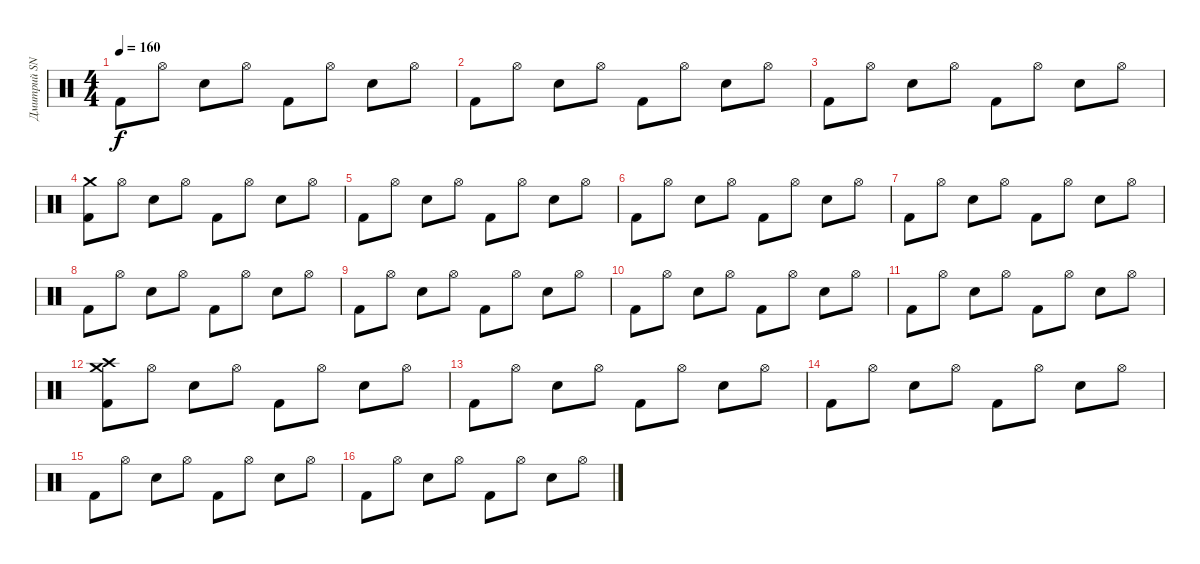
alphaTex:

\track ("Дмитрий SNAKE Хакимов" "Дмитрий SN") {instrument percussion}
\staff {score}
\articulation defaults
\ts (4 4)
\tempo 160
\clef neutral
\ks c "Kick (hit) 2".8{dy f} "Hi-Hat (open)".8 "Electric Snare (hit)".8 "Hi-Hat (open)".8 "Kick (hit) 2".8 "Hi-Hat (open)".8 "Electric Snare (hit)".8 "Hi-Hat (open)".8
|
"Kick (hit) 2".8 "Hi-Hat (open)".8 "Electric Snare (hit)".8 "Hi-Hat (open)".8 "Kick (hit) 2".8 "Hi-Hat (open)".8 "Electric Snare (hit)".8 "Hi-Hat (open)".8 |
"Kick (hit) 2".8 "Hi-Hat (open)".8 "Electric Snare (hit)".8 "Hi-Hat (open)".8 "Kick (hit) 2".8 "Hi-Hat (open)".8 "Electric Snare (hit)".8 "Hi-Hat (open)".8 |
("Crash medium (hit)" "Kick (hit) 2").8 "Hi-Hat (open)".8 "Electric Snare (hit)".8 "Hi-Hat (open)".8 "Kick (hit) 2".8 "Hi-Hat (open)".8 "Electric Snare (hit)".8 "Hi-Hat (open)".8 |
"Kick (hit) 2".8 "Hi-Hat (open)".8 "Electric Snare (hit)".8 "Hi-Hat (open)".8 "Kick (hit) 2".8 "Hi-Hat (open)".8 "Electric Snare (hit)".8 "Hi-Hat (open)".8 |
"Kick (hit) 2".8 "Hi-Hat (open)".8 "Electric Snare (hit)".8 "Hi-Hat (open)".8 "Kick (hit) 2".8 "Hi-Hat (open)".8 "Electric Snare (hit)".8 "Hi-Hat (open)".8 |
"Kick (hit) 2".8 "Hi-Hat (open)".8 "Electric Snare (hit)".8 "Hi-Hat (open)".8 "Kick (hit) 2".8 "Hi-Hat (open)".8 "Electric Snare (hit)".8 "Hi-Hat (open)".8 |
"Kick (hit) 2".8 "Hi-Hat (open)".8 "Electric Snare (hit)".8 "Hi-Hat (open)".8 "Kick (hit) 2".8 "Hi-Hat (open)".8 "Electric Snare (hit)".8 "Hi-Hat (open)".8 |
"Kick (hit) 2".8 "Hi-Hat (open)".8 "Electric Snare (hit)".8 "Hi-Hat (open)".8 "Kick (hit) 2".8 "Hi-Hat (open)".8 "Electric Snare (hit)".8 "Hi-Hat (open)".8 |
"Kick (hit) 2".8 "Hi-Hat (open)".8 "Electric Snare (hit)".8 "Hi-Hat (open)".8 "Kick (hit) 2".8 "Hi-Hat (open)".8 "Electric Snare (hit)".8 "Hi-Hat (open)".8 |
"Kick (hit) 2".8 "Hi-Hat (open)".8 "Electric Snare (hit)".8 "Hi-Hat (open)".8 "Kick (hit) 2".8 "Hi-Hat (open)".8 "Electric Snare (hit)".8 "Hi-Hat (open)".8 |
("Crash high (hit)" "Crash medium (hit)" "Kick (hit) 2").8 "Hi-Hat (open)".8 "Electric Snare (hit)".8 "Hi-Hat (open)".8 "Kick (hit) 2".8 "Hi-Hat (open)".8 "Electric Snare (hit)".8 "Hi-Hat (open)".8 |
"Kick (hit) 2".8 "Hi-Hat (open)".8 "Electric Snare (hit)".8 "Hi-Hat (open)".8 "Kick (hit) 2".8 "Hi-Hat (open)".8 "Electric Snare (hit)".8 "Hi-Hat (open)".8 |
"Kick (hit) 2".8 "Hi-Hat (open)".8 "Electric Snare (hit)".8 "Hi-Hat (open)".8 "Kick (hit) 2".8 "Hi-Hat (open)".8 "Electric Snare (hit)".8 "Hi-Hat (open)".8 |
"Kick (hit) 2".8 "Hi-Hat (open)".8 "Electric Snare (hit)".8 "Hi-Hat (open)".8 "Kick (hit) 2".8 "Hi-Hat (open)".8 "Electric Snare (hit)".8 "Hi-Hat (open)".8 |
"Kick (hit) 2".8 "Hi-Hat (open)".8 "Electric Snare (hit)".8 "Hi-Hat (open)".8 "Kick (hit) 2".8 "Hi-Hat (open)".8 "Electric Snare (hit)".8 "Hi-Hat (open)".8
